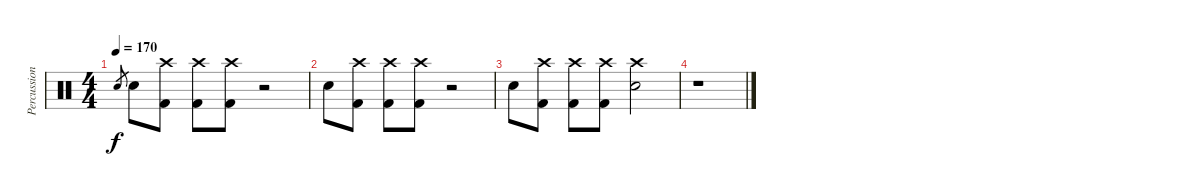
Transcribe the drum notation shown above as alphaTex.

\track ("Percussion" "Percussion") {instrument percussion}
\staff {score}
\articulation defaults
\ts (4 4)
\tempo 170
\clef neutral
\ks c "Snare (hit) 2".8{gr dy f} "Snare (hit) 2".8
("Crash high (hit)" "Kick (hit) 2").8 ("Crash high (hit)" "Kick (hit) 2").8 ("Crash high (hit)" "Kick (hit) 2").8 r.2 |
"Snare (hit) 2".8 ("Crash high (hit)" "Kick (hit) 2").8 ("Crash high (hit)" "Kick (hit) 2").8 ("Crash high (hit)" "Kick (hit) 2").8 r.2 |
"Snare (hit) 2".8 ("Crash high (hit)" "Kick (hit) 2").8 ("Crash high (hit)" "Kick (hit) 2").8 ("Crash high (hit)" "Kick (hit) 2").8 ("Crash high (hit)" "Snare (hit) 2").2 |
r.1
